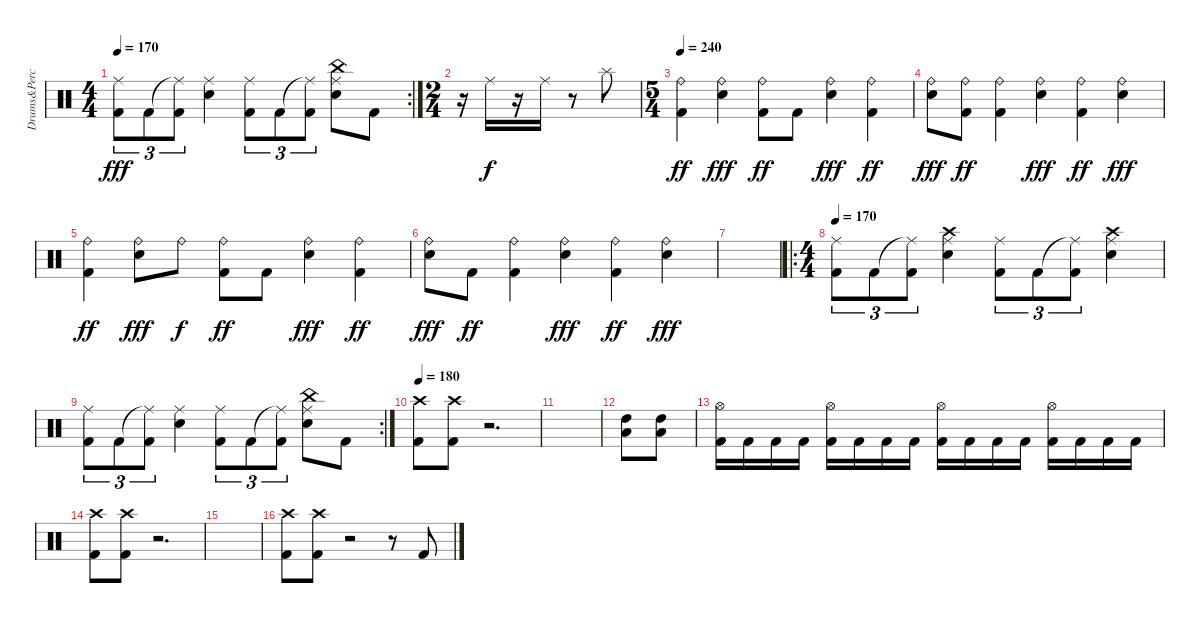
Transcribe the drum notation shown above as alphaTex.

\track ("Drums&Percusion" "Drums&Perc") {instrument percussion}
\staff {score}
\articulation defaults
\rc 2
\ts (4 4)
\tempo 170
\clef neutral
\ks c
("Ride (middle)" "Kick (hit) 2").8{tu (3 2) dy fff} "Kick (hit) 2".8{tu (3 2)} ("Ride (middle)"{t} "Kick (hit) 2").8{tu (3 2)} ("Ride (middle)" "Snare (hit) 2").4 ("Ride (middle)" "Kick (hit) 2").8{tu (3 2)} "Kick (hit) 2".8{tu (3 2)} ("Ride (middle)"{t} "Kick (hit) 2").8{tu (3 2)} ("Ride (middle)" "China (hit)" "Snare (hit) 2").8 "Kick (hit) 2".8 |
\ts (2 4)
r.16 "Ride (middle)".16{dy f} r.16 "Ride (middle)".16 r.8 "Splash (hit)".8 |
\ts (5 4)
\tempo 240
("Ride (bell)" "Kick (hit) 2").4{dy ff} ("Ride (bell)" "Snare (hit) 2").4{dy fff} ("Ride (bell)" "Kick (hit) 2").8{dy ff} "Kick (hit) 2".8 ("Ride (bell)" "Snare (hit) 2").4{dy fff} ("Ride (bell)" "Kick (hit) 2").4{dy ff} |
("Ride (bell)" "Snare (hit) 2").8{dy fff} ("Ride (bell)" "Kick (hit) 2").8{dy ff} ("Ride (bell)" "Kick (hit) 2").4 ("Ride (bell)" "Snare (hit) 2").4{dy fff} ("Ride (bell)" "Kick (hit) 2").4{dy ff} ("Ride (bell)" "Snare (hit) 2").4{dy fff} |
("Ride (bell)" "Kick (hit) 2").4{dy ff} ("Ride (bell)" "Snare (hit) 2").8{dy fff} "Ride (bell)".8{dy f} ("Ride (bell)" "Kick (hit) 2").8{dy ff} "Kick (hit) 2".8 ("Ride (bell)" "Snare (hit) 2").4{dy fff} ("Ride (bell)" "Kick (hit) 2").4{dy ff} |
("Ride (bell)" "Snare (hit) 2").8{dy fff} "Kick (hit) 2".8{dy ff} ("Ride (bell)" "Kick (hit) 2").4 ("Ride (bell)" "Snare (hit) 2").4{dy fff} ("Ride (bell)" "Kick (hit) 2").4{dy ff} ("Ride (bell)" "Snare (hit) 2").4{dy fff} |
|
\ro
\ts (4 4)
\tempo 170
("Ride (middle)" "Kick (hit) 2").8{tu (3 2)} "Kick (hit) 2".8{tu (3 2)} ("Ride (middle)"{t} "Kick (hit) 2").8{tu (3 2)} ("Ride (middle)" "Crash high (hit)" "Snare (hit) 2").4 ("Ride (middle)" "Kick (hit) 2").8{tu (3 2)} "Kick (hit) 2".8{tu (3 2)} ("Ride (middle)"{t} "Kick (hit) 2").8{tu (3 2)} ("Ride (middle)" "Crash high (hit)" "Snare (hit) 2").4 |
\rc 2
("Ride (middle)" "Kick (hit) 2").8{tu (3 2)} "Kick (hit) 2".8{tu (3 2)} ("Ride (middle)"{t} "Kick (hit) 2").8{tu (3 2)} ("Ride (middle)" "Snare (hit) 2").4 ("Ride (middle)" "Kick (hit) 2").8{tu (3 2)} "Kick (hit) 2".8{tu (3 2)} ("Ride (middle)"{t} "Kick (hit) 2").8{tu (3 2)} ("Ride (middle)" "China (hit)" "Snare (hit) 2").8 "Kick (hit) 2".8 |
\tempo 180
("Crash high (hit)" "Kick (hit) 2").8 ("Crash high (hit)" "Kick (hit) 2").8 r.2{d} |
|
("High Tom (hit)" "Low Tom (hit)").8 ("High Tom (hit)" "Low Tom (hit)").8 |
("Hi-Hat (open)" "Kick (hit) 2").16 "Kick (hit) 2".16 "Kick (hit) 2".16 "Kick (hit) 2".16 ("Hi-Hat (open)" "Kick (hit) 2").16 "Kick (hit) 2".16 "Kick (hit) 2".16 "Kick (hit) 2".16 ("Hi-Hat (open)" "Kick (hit) 2").16 "Kick (hit) 2".16 "Kick (hit) 2".16 "Kick (hit) 2".16 ("Hi-Hat (open)" "Kick (hit) 2").16 "Kick (hit) 2".16 "Kick (hit) 2".16 "Kick (hit) 2".16 |
("Crash high (hit)" "Kick (hit) 2").8 ("Crash high (hit)" "Kick (hit) 2").8 r.2{d} |
|
("Crash high (hit)" "Kick (hit) 2").8 ("Crash high (hit)" "Kick (hit) 2").8 r.2 r.8 "Kick (hit) 2".8
